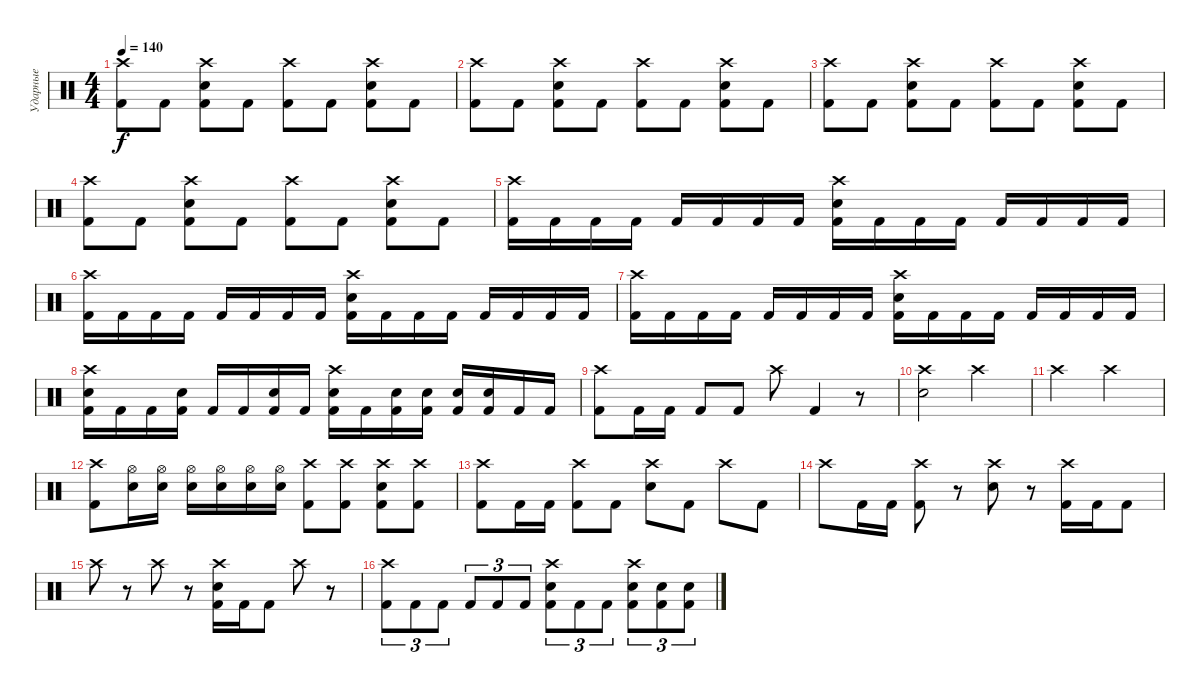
\track ("Ударные" "Ударные") {instrument percussion}
\staff {score}
\articulation defaults
\ts (4 4)
\tempo 140
\clef neutral
\ks c
("Crash high (hit)" "Kick (hit) 2").8{dy f} "Kick (hit) 2".8 ("Crash high (hit)" "Electric Snare (hit)" "Kick (hit) 2").8 "Kick (hit) 2".8 ("Crash high (hit)" "Kick (hit) 2").8 "Kick (hit) 2".8 ("Crash high (hit)" "Electric Snare (hit)" "Kick (hit) 2").8 "Kick (hit) 2".8 |
("Crash high (hit)" "Kick (hit) 2").8 "Kick (hit) 2".8 ("Crash high (hit)" "Electric Snare (hit)" "Kick (hit) 2").8 "Kick (hit) 2".8 ("Crash high (hit)" "Kick (hit) 2").8 "Kick (hit) 2".8 ("Crash high (hit)" "Electric Snare (hit)" "Kick (hit) 2").8 "Kick (hit) 2".8 |
("Crash high (hit)" "Kick (hit) 2").8 "Kick (hit) 2".8 ("Crash high (hit)" "Electric Snare (hit)" "Kick (hit) 2").8 "Kick (hit) 2".8 ("Crash high (hit)" "Kick (hit) 2").8 "Kick (hit) 2".8 ("Crash high (hit)" "Electric Snare (hit)" "Kick (hit) 2").8 "Kick (hit) 2".8 |
("Crash high (hit)" "Kick (hit) 2").8 "Kick (hit) 2".8 ("Crash high (hit)" "Electric Snare (hit)" "Kick (hit) 2").8 "Kick (hit) 2".8 ("Crash high (hit)" "Kick (hit) 2").8 "Kick (hit) 2".8 ("Crash high (hit)" "Electric Snare (hit)" "Kick (hit) 2").8 "Kick (hit) 2".8 |
("Crash high (hit)" "Kick (hit) 2").16 "Kick (hit) 2".16 "Kick (hit) 2".16 "Kick (hit) 2".16 "Kick (hit) 2".16 "Kick (hit) 2".16 "Kick (hit) 2".16 "Kick (hit) 2".16 ("Crash high (hit)" "Electric Snare (hit)" "Kick (hit) 2").16 "Kick (hit) 2".16 "Kick (hit) 2".16 "Kick (hit) 2".16 "Kick (hit) 2".16 "Kick (hit) 2".16 "Kick (hit) 2".16 "Kick (hit) 2".16 |
("Crash high (hit)" "Kick (hit) 2").16 "Kick (hit) 2".16 "Kick (hit) 2".16 "Kick (hit) 2".16 "Kick (hit) 2".16 "Kick (hit) 2".16 "Kick (hit) 2".16 "Kick (hit) 2".16 ("Crash high (hit)" "Electric Snare (hit)" "Kick (hit) 2").16 "Kick (hit) 2".16 "Kick (hit) 2".16 "Kick (hit) 2".16 "Kick (hit) 2".16 "Kick (hit) 2".16 "Kick (hit) 2".16 "Kick (hit) 2".16 |
("Crash high (hit)" "Kick (hit) 2").16 "Kick (hit) 2".16 "Kick (hit) 2".16 "Kick (hit) 2".16 "Kick (hit) 2".16 "Kick (hit) 2".16 "Kick (hit) 2".16 "Kick (hit) 2".16 ("Crash high (hit)" "Electric Snare (hit)" "Kick (hit) 2").16 "Kick (hit) 2".16 "Kick (hit) 2".16 "Kick (hit) 2".16 "Kick (hit) 2".16 "Kick (hit) 2".16 "Kick (hit) 2".16 "Kick (hit) 2".16 |
("Crash high (hit)" "Electric Snare (hit)" "Kick (hit) 2").16 "Kick (hit) 2".16 "Kick (hit) 2".16 ("Electric Snare (hit)" "Kick (hit) 2").16 "Kick (hit) 2".16 "Kick (hit) 2".16 ("Electric Snare (hit)" "Kick (hit) 2").16 "Kick (hit) 2".16 ("Crash high (hit)" "Electric Snare (hit)" "Kick (hit) 2").16 "Kick (hit) 2".16 ("Electric Snare (hit)" "Kick (hit) 2").16 ("Electric Snare (hit)" "Kick (hit) 2").16 ("Electric Snare (hit)" "Kick (hit) 2").16 ("Electric Snare (hit)" "Kick (hit) 2").16 "Kick (hit) 2".16 "Kick (hit) 2".16 |
("Crash high (hit)" "Kick (hit) 2").8 "Kick (hit) 2".16 "Kick (hit) 2".16 "Kick (hit) 2".8 "Kick (hit) 2".8 "Crash high (hit)".8 "Kick (hit) 2".4 r.8 |
("Crash high (hit)" "Electric Snare (hit)").2 "Crash high (hit)".2 |
"Crash high (hit)".2 "Crash high (hit)".2 |
("Crash high (hit)" "Kick (hit) 2").8 ("Hi-Hat (open)" "Electric Snare (hit)").16 ("Hi-Hat (open)" "Electric Snare (hit)").16 ("Hi-Hat (open)" "Electric Snare (hit)").16 ("Hi-Hat (open)" "Electric Snare (hit)").16 ("Hi-Hat (open)" "Electric Snare (hit)").16 ("Hi-Hat (open)" "Electric Snare (hit)").16 ("Crash high (hit)" "Kick (hit) 2").8 ("Crash high (hit)" "Kick (hit) 2").8 ("Crash high (hit)" "Electric Snare (hit)" "Kick (hit) 2").8 ("Crash high (hit)" "Kick (hit) 2").8 |
("Crash high (hit)" "Kick (hit) 2").8 "Kick (hit) 2".16 "Kick (hit) 2".16 ("Crash high (hit)" "Kick (hit) 2").8 "Kick (hit) 2".8 ("Crash high (hit)" "Electric Snare (hit)").8 "Kick (hit) 2".8 "Crash high (hit)".8 "Kick (hit) 2".8 |
"Crash high (hit)".8 "Kick (hit) 2".16 "Kick (hit) 2".16 ("Crash high (hit)" "Kick (hit) 2").8 r.8 ("Crash high (hit)" "Electric Snare (hit)").8 r.8 ("Crash high (hit)" "Kick (hit) 2").16 "Kick (hit) 2".16 "Kick (hit) 2".8 |
"Crash high (hit)".8 r.8 "Crash high (hit)".8 r.8 ("Crash high (hit)" "Electric Snare (hit)" "Kick (hit) 2").16 "Kick (hit) 2".16 "Kick (hit) 2".8 "Crash high (hit)".8 r.8 |
("Crash high (hit)" "Kick (hit) 2").8{tu (3 2)} "Kick (hit) 2".8{tu (3 2)} "Kick (hit) 2".8{tu (3 2)} "Kick (hit) 2".8{tu (3 2)} "Kick (hit) 2".8{tu (3 2)} "Kick (hit) 2".8{tu (3 2)} ("Crash high (hit)" "Electric Snare (hit)" "Kick (hit) 2").8{tu (3 2)} "Kick (hit) 2".8{tu (3 2)} "Kick (hit) 2".8{tu (3 2)} ("Crash high (hit)" "Electric Snare (hit)" "Kick (hit) 2").8{tu (3 2)} ("Electric Snare (hit)" "Kick (hit) 2").8{tu (3 2)} ("Electric Snare (hit)" "Kick (hit) 2").8{tu (3 2)}
